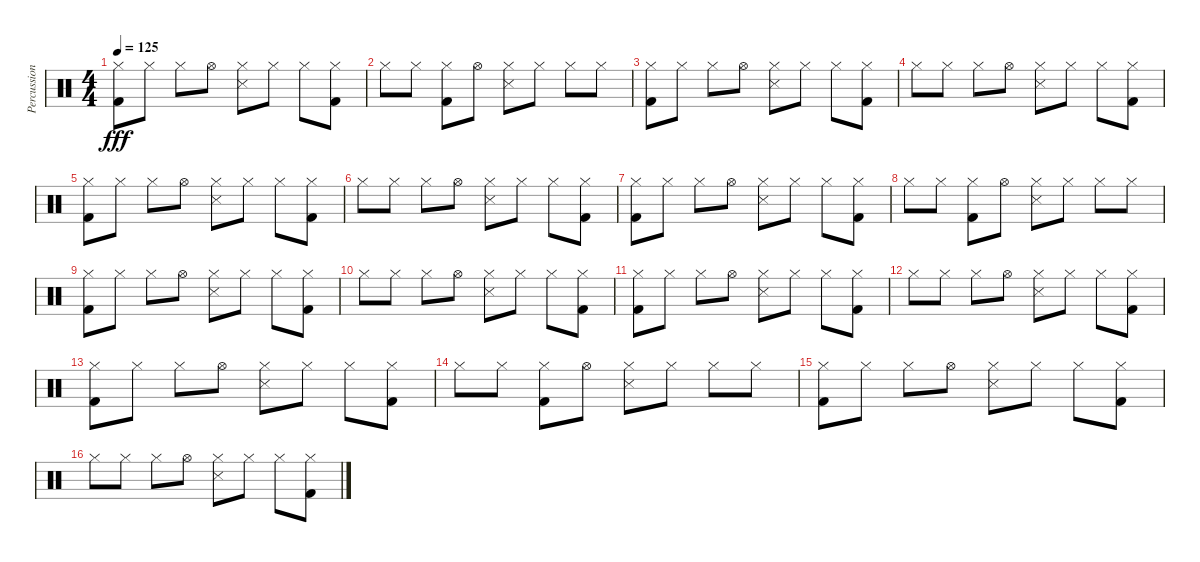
\track ("Percussion" "Percussion") {instrument percussion}
\staff {score}
\articulation defaults
\ts (4 4)
\tempo 125
\clef neutral
\ks c
("Hi-Hat (closed)" "Kick (hit) 2").8{dy fff} "Hi-Hat (closed)".8 "Hi-Hat (closed)".8 "Hi-Hat (open)".8 ("Hi-Hat (closed)" "Snare (side stick) 3").8 "Hi-Hat (closed)".8 "Hi-Hat (closed)".8 ("Hi-Hat (closed)" "Kick (hit) 2").8 |
"Hi-Hat (closed)".8 "Hi-Hat (closed)".8 ("Hi-Hat (closed)" "Kick (hit) 2").8 "Hi-Hat (open)".8 ("Hi-Hat (closed)" "Snare (side stick) 3").8 "Hi-Hat (closed)".8 "Hi-Hat (closed)".8 "Hi-Hat (closed)".8 |
("Hi-Hat (closed)" "Kick (hit) 2").8 "Hi-Hat (closed)".8 "Hi-Hat (closed)".8 "Hi-Hat (open)".8 ("Hi-Hat (closed)" "Snare (side stick) 3").8 "Hi-Hat (closed)".8 "Hi-Hat (closed)".8 ("Hi-Hat (closed)" "Kick (hit) 2").8 |
"Hi-Hat (closed)".8 "Hi-Hat (closed)".8 "Hi-Hat (closed)".8 "Hi-Hat (open)".8 ("Hi-Hat (closed)" "Snare (side stick) 3").8 "Hi-Hat (closed)".8 "Hi-Hat (closed)".8 ("Hi-Hat (closed)" "Kick (hit) 2").8 |
("Hi-Hat (closed)" "Kick (hit) 2").8 "Hi-Hat (closed)".8 "Hi-Hat (closed)".8 "Hi-Hat (open)".8 ("Hi-Hat (closed)" "Snare (side stick) 3").8 "Hi-Hat (closed)".8 "Hi-Hat (closed)".8 ("Hi-Hat (closed)" "Kick (hit) 2").8 |
"Hi-Hat (closed)".8 "Hi-Hat (closed)".8 "Hi-Hat (closed)".8 "Hi-Hat (open)".8 ("Hi-Hat (closed)" "Snare (side stick) 3").8 "Hi-Hat (closed)".8 "Hi-Hat (closed)".8 ("Hi-Hat (closed)" "Kick (hit) 2").8 |
("Hi-Hat (closed)" "Kick (hit) 2").8 "Hi-Hat (closed)".8 "Hi-Hat (closed)".8 "Hi-Hat (open)".8 ("Hi-Hat (closed)" "Snare (side stick) 3").8 "Hi-Hat (closed)".8 "Hi-Hat (closed)".8 ("Hi-Hat (closed)" "Kick (hit) 2").8 |
"Hi-Hat (closed)".8 "Hi-Hat (closed)".8 ("Hi-Hat (closed)" "Kick (hit) 2").8 "Hi-Hat (open)".8 ("Hi-Hat (closed)" "Snare (side stick) 3").8 "Hi-Hat (closed)".8 "Hi-Hat (closed)".8 "Hi-Hat (closed)".8 |
("Hi-Hat (closed)" "Kick (hit) 2").8 "Hi-Hat (closed)".8 "Hi-Hat (closed)".8 "Hi-Hat (open)".8 ("Hi-Hat (closed)" "Snare (side stick) 3").8 "Hi-Hat (closed)".8 "Hi-Hat (closed)".8 ("Hi-Hat (closed)" "Kick (hit) 2").8 |
"Hi-Hat (closed)".8 "Hi-Hat (closed)".8 "Hi-Hat (closed)".8 "Hi-Hat (open)".8 ("Hi-Hat (closed)" "Snare (side stick) 3").8 "Hi-Hat (closed)".8 "Hi-Hat (closed)".8 ("Hi-Hat (closed)" "Kick (hit) 2").8 |
("Hi-Hat (closed)" "Kick (hit) 2").8 "Hi-Hat (closed)".8 "Hi-Hat (closed)".8 "Hi-Hat (open)".8 ("Hi-Hat (closed)" "Snare (side stick) 3").8 "Hi-Hat (closed)".8 "Hi-Hat (closed)".8 ("Hi-Hat (closed)" "Kick (hit) 2").8 |
"Hi-Hat (closed)".8 "Hi-Hat (closed)".8 "Hi-Hat (closed)".8 "Hi-Hat (open)".8 ("Hi-Hat (closed)" "Snare (side stick) 3").8 "Hi-Hat (closed)".8 "Hi-Hat (closed)".8 ("Hi-Hat (closed)" "Kick (hit) 2").8 |
("Hi-Hat (closed)" "Kick (hit) 2").8 "Hi-Hat (closed)".8 "Hi-Hat (closed)".8 "Hi-Hat (open)".8 ("Hi-Hat (closed)" "Snare (side stick) 3").8 "Hi-Hat (closed)".8 "Hi-Hat (closed)".8 ("Hi-Hat (closed)" "Kick (hit) 2").8 |
"Hi-Hat (closed)".8 "Hi-Hat (closed)".8 ("Hi-Hat (closed)" "Kick (hit) 2").8 "Hi-Hat (open)".8 ("Hi-Hat (closed)" "Snare (side stick) 3").8 "Hi-Hat (closed)".8 "Hi-Hat (closed)".8 "Hi-Hat (closed)".8 |
("Hi-Hat (closed)" "Kick (hit) 2").8 "Hi-Hat (closed)".8 "Hi-Hat (closed)".8 "Hi-Hat (open)".8 ("Hi-Hat (closed)" "Snare (side stick) 3").8 "Hi-Hat (closed)".8 "Hi-Hat (closed)".8 ("Hi-Hat (closed)" "Kick (hit) 2").8 |
"Hi-Hat (closed)".8 "Hi-Hat (closed)".8 "Hi-Hat (closed)".8 "Hi-Hat (open)".8 ("Hi-Hat (closed)" "Snare (side stick) 3").8 "Hi-Hat (closed)".8 "Hi-Hat (closed)".8 ("Hi-Hat (closed)" "Kick (hit) 2").8
